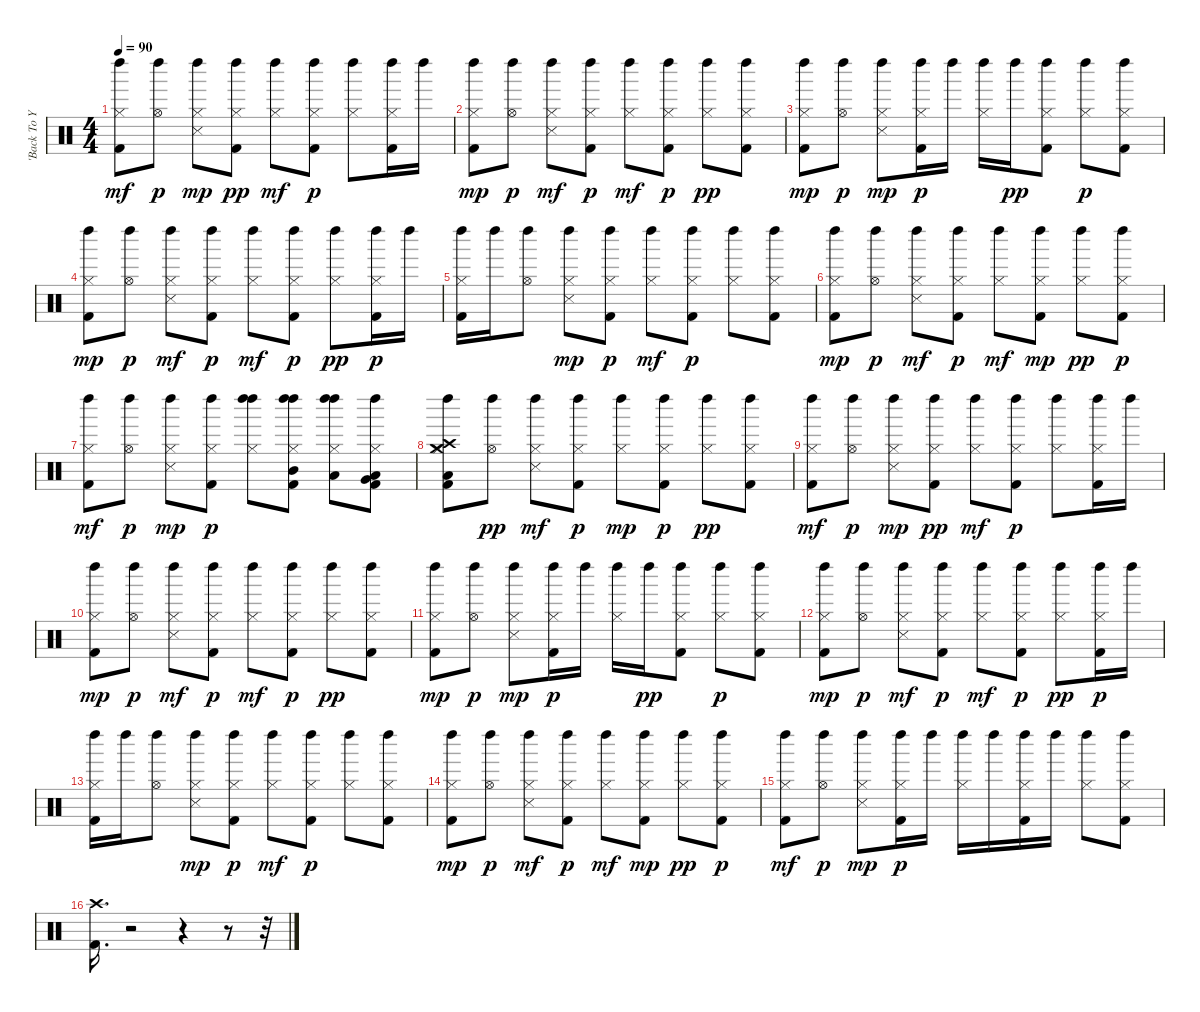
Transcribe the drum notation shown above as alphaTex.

\track ("'Back To Your Heart'" "'Back To Y") {instrument percussion}
\staff {score}
\articulation defaults
\ts (4 4)
\tempo 90
\clef neutral
\ks c
("Kick (hit) 2" "Hi-Hat (closed)" "Left Maraca (hit)").8{dy mf} ("Hi-Hat (open)" "Left Maraca (hit)").8{dy p} ("Snare (side stick) 3" "Hi-Hat (closed)" "Left Maraca (hit)").8{dy mp} ("Kick (hit) 2" "Hi-Hat (closed)" "Left Maraca (hit)").8{dy pp} ("Hi-Hat (closed)" "Left Maraca (hit)").8{dy mf} ("Kick (hit) 2" "Hi-Hat (closed)" "Left Maraca (hit)").8{dy p} ("Hi-Hat (closed)" "Left Maraca (hit)").8 ("Kick (hit) 2" "Hi-Hat (closed)" "Left Maraca (hit)").16 "Left Maraca (hit)".16 |
("Kick (hit) 2" "Hi-Hat (closed)" "Left Maraca (hit)").8{dy mp} ("Hi-Hat (open)" "Left Maraca (hit)").8{dy p} ("Snare (side stick) 3" "Hi-Hat (closed)" "Left Maraca (hit)").8{dy mf} ("Kick (hit) 2" "Hi-Hat (closed)" "Left Maraca (hit)").8{dy p} ("Hi-Hat (closed)" "Left Maraca (hit)").8{dy mf} ("Kick (hit) 2" "Hi-Hat (closed)" "Left Maraca (hit)").8{dy p} ("Hi-Hat (closed)" "Left Maraca (hit)").8{dy pp} ("Kick (hit) 2" "Hi-Hat (closed)" "Left Maraca (hit)").8 |
("Kick (hit) 2" "Hi-Hat (closed)" "Left Maraca (hit)").8{dy mp} ("Hi-Hat (open)" "Left Maraca (hit)").8{dy p} ("Snare (side stick) 3" "Hi-Hat (closed)" "Left Maraca (hit)").8{dy mp} ("Kick (hit) 2" "Hi-Hat (closed)" "Left Maraca (hit)").16{dy p} "Left Maraca (hit)".16 ("Hi-Hat (closed)" "Left Maraca (hit)").16 "Left Maraca (hit)".16{dy pp} ("Kick (hit) 2" "Hi-Hat (closed)" "Left Maraca (hit)").8 ("Hi-Hat (closed)" "Left Maraca (hit)").8{dy p} ("Kick (hit) 2" "Hi-Hat (closed)" "Left Maraca (hit)").8 |
("Kick (hit) 2" "Hi-Hat (closed)" "Left Maraca (hit)").8{dy mp} ("Hi-Hat (open)" "Left Maraca (hit)").8{dy p} ("Snare (side stick) 3" "Hi-Hat (closed)" "Left Maraca (hit)").8{dy mf} ("Kick (hit) 2" "Hi-Hat (closed)" "Left Maraca (hit)").8{dy p} ("Hi-Hat (closed)" "Left Maraca (hit)").8{dy mf} ("Kick (hit) 2" "Hi-Hat (closed)" "Left Maraca (hit)").8{dy p} ("Hi-Hat (closed)" "Left Maraca (hit)").8{dy pp} ("Kick (hit) 2" "Hi-Hat (closed)" "Left Maraca (hit)").16{dy p} "Left Maraca (hit)".16 |
("Kick (hit) 2" "Hi-Hat (closed)" "Left Maraca (hit)").16 "Left Maraca (hit)".16 ("Hi-Hat (open)" "Left Maraca (hit)").8 ("Snare (side stick) 3" "Hi-Hat (closed)" "Left Maraca (hit)").8{dy mp} ("Kick (hit) 2" "Hi-Hat (closed)" "Left Maraca (hit)").8{dy p} ("Hi-Hat (closed)" "Left Maraca (hit)").8{dy mf} ("Kick (hit) 2" "Hi-Hat (closed)" "Left Maraca (hit)").8{dy p} ("Hi-Hat (closed)" "Left Maraca (hit)").8 ("Kick (hit) 2" "Hi-Hat (closed)" "Left Maraca (hit)").8 |
("Kick (hit) 2" "Hi-Hat (closed)" "Left Maraca (hit)").8{dy mp} ("Hi-Hat (open)" "Left Maraca (hit)").8{dy p} ("Snare (side stick) 3" "Hi-Hat (closed)" "Left Maraca (hit)").8{dy mf} ("Kick (hit) 2" "Hi-Hat (closed)" "Left Maraca (hit)").8{dy p} ("Hi-Hat (closed)" "Left Maraca (hit)").8{dy mf} ("Kick (hit) 2" "Hi-Hat (closed)" "Left Maraca (hit)").8{dy mp} ("Hi-Hat (closed)" "Left Maraca (hit)").8{dy pp} ("Kick (hit) 2" "Hi-Hat (closed)" "Left Maraca (hit)").8{dy p} |
("Kick (hit) 2" "Hi-Hat (closed)" "Left Maraca (hit)").8{dy mf} ("Hi-Hat (open)" "Left Maraca (hit)").8{dy p} ("Snare (side stick) 3" "Hi-Hat (closed)" "Left Maraca (hit)").8{dy mp} ("Kick (hit) 2" "Hi-Hat (closed)" "Left Maraca (hit)").8{dy p} ("Hi-Hat (closed)" "Left Maraca (hit)" "Left Maraca (hit)").8 ("Kick (hit) 2" "Hi-Hat (closed)" "Mid Tom (hit)" "Left Maraca (hit)" "Left Maraca (hit)").8 ("Hi-Hat (closed)" "Low Tom (hit)" "Left Maraca (hit)" "Left Maraca (hit)").8 ("Kick (hit) 2" "Hi-Hat (closed)" "Very Low Tom (hit)" "Low Tom (hit)" "Left Maraca (hit)").8 |
("Kick (hit) 2" "Low Floor Tom (hit)" "Hi-Hat (closed)" "Crash high (hit)" "Crash medium (hit)" "Left Maraca (hit)").8 ("Hi-Hat (open)" "Left Maraca (hit)").8{dy pp} ("Snare (side stick) 3" "Hi-Hat (closed)" "Left Maraca (hit)").8{dy mf} ("Kick (hit) 2" "Hi-Hat (closed)" "Left Maraca (hit)").8{dy p} ("Hi-Hat (closed)" "Left Maraca (hit)").8{dy mp} ("Kick (hit) 2" "Hi-Hat (closed)" "Left Maraca (hit)").8{dy p} ("Hi-Hat (closed)" "Left Maraca (hit)").8{dy pp} ("Kick (hit) 2" "Hi-Hat (closed)" "Left Maraca (hit)").8 |
("Kick (hit) 2" "Hi-Hat (closed)" "Left Maraca (hit)").8{dy mf} ("Hi-Hat (open)" "Left Maraca (hit)").8{dy p} ("Snare (side stick) 3" "Hi-Hat (closed)" "Left Maraca (hit)").8{dy mp} ("Kick (hit) 2" "Hi-Hat (closed)" "Left Maraca (hit)").8{dy pp} ("Hi-Hat (closed)" "Left Maraca (hit)").8{dy mf} ("Kick (hit) 2" "Hi-Hat (closed)" "Left Maraca (hit)").8{dy p} ("Hi-Hat (closed)" "Left Maraca (hit)").8 ("Kick (hit) 2" "Hi-Hat (closed)" "Left Maraca (hit)").16 "Left Maraca (hit)".16 |
("Kick (hit) 2" "Hi-Hat (closed)" "Left Maraca (hit)").8{dy mp} ("Hi-Hat (open)" "Left Maraca (hit)").8{dy p} ("Snare (side stick) 3" "Hi-Hat (closed)" "Left Maraca (hit)").8{dy mf} ("Kick (hit) 2" "Hi-Hat (closed)" "Left Maraca (hit)").8{dy p} ("Hi-Hat (closed)" "Left Maraca (hit)").8{dy mf} ("Kick (hit) 2" "Hi-Hat (closed)" "Left Maraca (hit)").8{dy p} ("Hi-Hat (closed)" "Left Maraca (hit)").8{dy pp} ("Kick (hit) 2" "Hi-Hat (closed)" "Left Maraca (hit)").8 |
("Kick (hit) 2" "Hi-Hat (closed)" "Left Maraca (hit)").8{dy mp} ("Hi-Hat (open)" "Left Maraca (hit)").8{dy p} ("Snare (side stick) 3" "Hi-Hat (closed)" "Left Maraca (hit)").8{dy mp} ("Kick (hit) 2" "Hi-Hat (closed)" "Left Maraca (hit)").16{dy p} "Left Maraca (hit)".16 ("Hi-Hat (closed)" "Left Maraca (hit)").16 "Left Maraca (hit)".16{dy pp} ("Kick (hit) 2" "Hi-Hat (closed)" "Left Maraca (hit)").8 ("Hi-Hat (closed)" "Left Maraca (hit)").8{dy p} ("Kick (hit) 2" "Hi-Hat (closed)" "Left Maraca (hit)").8 |
("Kick (hit) 2" "Hi-Hat (closed)" "Left Maraca (hit)").8{dy mp} ("Hi-Hat (open)" "Left Maraca (hit)").8{dy p} ("Snare (side stick) 3" "Hi-Hat (closed)" "Left Maraca (hit)").8{dy mf} ("Kick (hit) 2" "Hi-Hat (closed)" "Left Maraca (hit)").8{dy p} ("Hi-Hat (closed)" "Left Maraca (hit)").8{dy mf} ("Kick (hit) 2" "Hi-Hat (closed)" "Left Maraca (hit)").8{dy p} ("Hi-Hat (closed)" "Left Maraca (hit)").8{dy pp} ("Kick (hit) 2" "Hi-Hat (closed)" "Left Maraca (hit)").16{dy p} "Left Maraca (hit)".16 |
("Kick (hit) 2" "Hi-Hat (closed)" "Left Maraca (hit)").16 "Left Maraca (hit)".16 ("Hi-Hat (open)" "Left Maraca (hit)").8 ("Snare (side stick) 3" "Hi-Hat (closed)" "Left Maraca (hit)").8{dy mp} ("Kick (hit) 2" "Hi-Hat (closed)" "Left Maraca (hit)").8{dy p} ("Hi-Hat (closed)" "Left Maraca (hit)").8{dy mf} ("Kick (hit) 2" "Hi-Hat (closed)" "Left Maraca (hit)").8{dy p} ("Hi-Hat (closed)" "Left Maraca (hit)").8 ("Kick (hit) 2" "Hi-Hat (closed)" "Left Maraca (hit)").8 |
("Kick (hit) 2" "Hi-Hat (closed)" "Left Maraca (hit)").8{dy mp} ("Hi-Hat (open)" "Left Maraca (hit)").8{dy p} ("Snare (side stick) 3" "Hi-Hat (closed)" "Left Maraca (hit)").8{dy mf} ("Kick (hit) 2" "Hi-Hat (closed)" "Left Maraca (hit)").8{dy p} ("Hi-Hat (closed)" "Left Maraca (hit)").8{dy mf} ("Kick (hit) 2" "Hi-Hat (closed)" "Left Maraca (hit)").8{dy mp} ("Hi-Hat (closed)" "Left Maraca (hit)").8{dy pp} ("Kick (hit) 2" "Hi-Hat (closed)" "Left Maraca (hit)").8{dy p} |
("Kick (hit) 2" "Hi-Hat (closed)" "Left Maraca (hit)").8{dy mf} ("Hi-Hat (open)" "Left Maraca (hit)").8{dy p} ("Snare (side stick) 3" "Hi-Hat (closed)" "Left Maraca (hit)").8{dy mp} ("Kick (hit) 2" "Hi-Hat (closed)" "Left Maraca (hit)").16{dy p} "Left Maraca (hit)".16 ("Hi-Hat (closed)" "Left Maraca (hit)").16 "Left Maraca (hit)".16 ("Kick (hit) 2" "Hi-Hat (closed)" "Left Maraca (hit)").16 "Left Maraca (hit)".16 ("Hi-Hat (closed)" "Left Maraca (hit)").8 ("Kick (hit) 2" "Hi-Hat (closed)" "Left Maraca (hit)").8 |
("Kick (hit) 2" "Crash high (hit)").16{d} r.2 r.4 r.8 r.32
